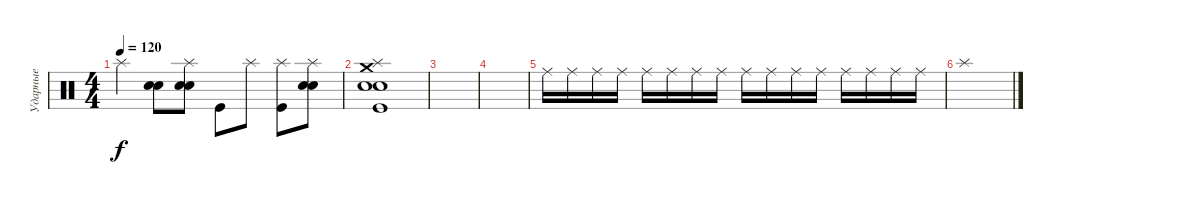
\track ("Ударные" "Ударные") {instrument percussion}
\staff {score}
\articulation defaults
\ts (4 4)
\tempo 120
\clef neutral
\ks c "Splash (hit)".4{dy f}
("Snare (hit) 2" "Snare (hit) 2").8 ("Splash (hit)" "Snare (hit) 2" "Snare (hit) 2").8 "Kick (hit)".8 "Splash (hit)".8 ("Splash (hit)" "Kick (hit)").8 ("Splash (hit)" "Snare (hit) 2" "Snare (hit) 2").8 |
("Crash medium (hit)" "Splash (hit)" "Snare (hit) 2" "Snare (hit) 2" "Kick (hit)").1 |
|
|
"Ride (middle)".16 "Ride (middle)".16 "Ride (middle)".16 "Ride (middle)".16 "Ride (middle)".16 "Ride (middle)".16 "Ride (middle)".16 "Ride (middle)".16 "Ride (middle)".16 "Ride (middle)".16 "Ride (middle)".16 "Ride (middle)".16 "Ride (middle)".16 "Ride (middle)".16 "Ride (middle)".16 "Ride (middle)".16 |
"Splash (hit)".1
